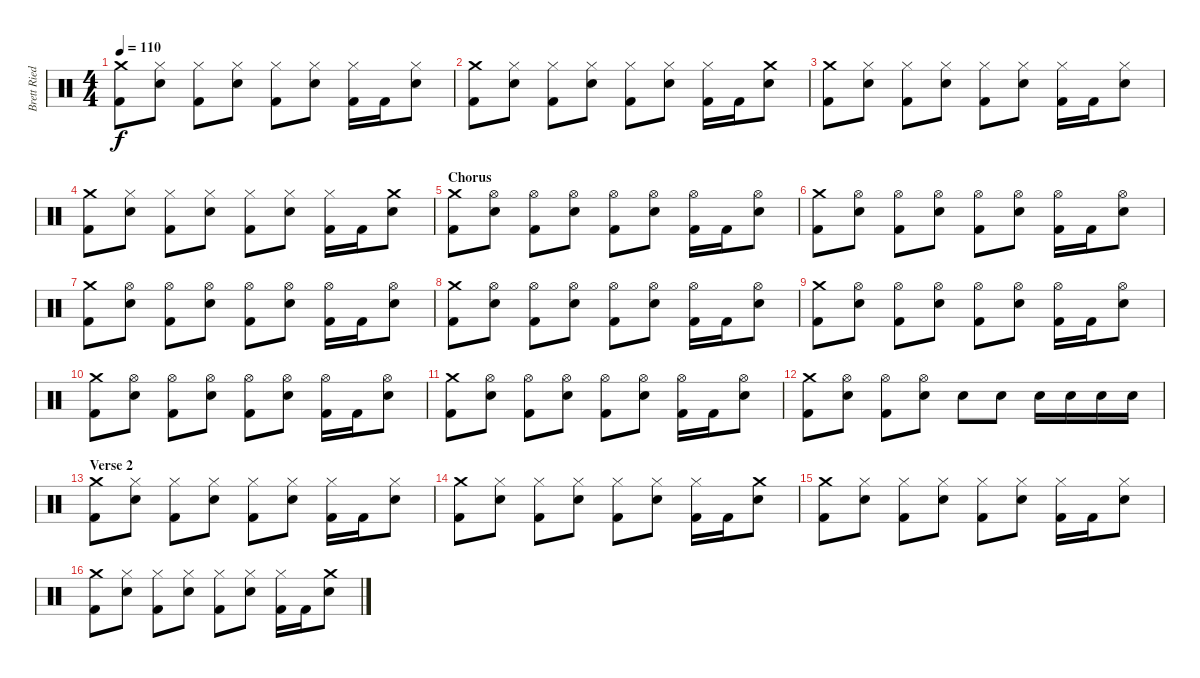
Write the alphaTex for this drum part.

\track ("Brett Ried" "Brett Ried") {instrument percussion}
\staff {score}
\articulation defaults
\ts (4 4)
\tempo 110
\clef neutral
\ks c
("Crash medium (hit)" "Kick (hit) 2").8{dy f} ("Hi-Hat (closed)" "Snare (hit) 2").8 ("Hi-Hat (closed)" "Kick (hit) 2").8 ("Hi-Hat (closed)" "Snare (hit) 2").8 ("Hi-Hat (closed)" "Kick (hit) 2").8 ("Hi-Hat (closed)" "Snare (hit) 2").8 ("Hi-Hat (closed)" "Kick (hit) 2").16 "Kick (hit) 2".16 ("Hi-Hat (closed)" "Snare (hit) 2").8 |
("Crash medium (hit)" "Kick (hit) 2").8 ("Hi-Hat (closed)" "Snare (hit) 2").8 ("Hi-Hat (closed)" "Kick (hit) 2").8 ("Hi-Hat (closed)" "Snare (hit) 2").8 ("Hi-Hat (closed)" "Kick (hit) 2").8 ("Hi-Hat (closed)" "Snare (hit) 2").8 ("Hi-Hat (closed)" "Kick (hit) 2").16 "Kick (hit) 2".16 ("Crash medium (hit)" "Snare (hit) 2").8 |
("Crash medium (hit)" "Kick (hit) 2").8 ("Hi-Hat (closed)" "Snare (hit) 2").8 ("Hi-Hat (closed)" "Kick (hit) 2").8 ("Hi-Hat (closed)" "Snare (hit) 2").8 ("Hi-Hat (closed)" "Kick (hit) 2").8 ("Hi-Hat (closed)" "Snare (hit) 2").8 ("Hi-Hat (closed)" "Kick (hit) 2").16 "Kick (hit) 2".16 ("Hi-Hat (closed)" "Snare (hit) 2").8 |
("Crash medium (hit)" "Kick (hit) 2").8 ("Hi-Hat (closed)" "Snare (hit) 2").8 ("Hi-Hat (closed)" "Kick (hit) 2").8 ("Hi-Hat (closed)" "Snare (hit) 2").8 ("Hi-Hat (closed)" "Kick (hit) 2").8 ("Hi-Hat (closed)" "Snare (hit) 2").8 ("Hi-Hat (closed)" "Kick (hit) 2").16 "Kick (hit) 2".16 ("Crash medium (hit)" "Snare (hit) 2").8 |
\section ("" "Chorus")
("Crash medium (hit)" "Kick (hit) 2").8 ("Hi-Hat (open)" "Snare (hit) 2").8 ("Hi-Hat (open)" "Kick (hit) 2").8 ("Hi-Hat (open)" "Snare (hit) 2").8 ("Hi-Hat (open)" "Kick (hit) 2").8 ("Hi-Hat (open)" "Snare (hit) 2").8 ("Hi-Hat (open)" "Kick (hit) 2").16 "Kick (hit) 2".16 ("Hi-Hat (open)" "Snare (hit) 2").8 |
("Crash medium (hit)" "Kick (hit) 2").8 ("Hi-Hat (open)" "Snare (hit) 2").8 ("Hi-Hat (open)" "Kick (hit) 2").8 ("Hi-Hat (open)" "Snare (hit) 2").8 ("Hi-Hat (open)" "Kick (hit) 2").8 ("Hi-Hat (open)" "Snare (hit) 2").8 ("Hi-Hat (open)" "Kick (hit) 2").16 "Kick (hit) 2".16 ("Hi-Hat (open)" "Snare (hit) 2").8 |
("Crash medium (hit)" "Kick (hit) 2").8 ("Hi-Hat (open)" "Snare (hit) 2").8 ("Hi-Hat (open)" "Kick (hit) 2").8 ("Hi-Hat (open)" "Snare (hit) 2").8 ("Hi-Hat (open)" "Kick (hit) 2").8 ("Hi-Hat (open)" "Snare (hit) 2").8 ("Hi-Hat (open)" "Kick (hit) 2").16 "Kick (hit) 2".16 ("Hi-Hat (open)" "Snare (hit) 2").8 |
("Crash medium (hit)" "Kick (hit) 2").8 ("Hi-Hat (open)" "Snare (hit) 2").8 ("Hi-Hat (open)" "Kick (hit) 2").8 ("Hi-Hat (open)" "Snare (hit) 2").8 ("Hi-Hat (open)" "Kick (hit) 2").8 ("Hi-Hat (open)" "Snare (hit) 2").8 ("Hi-Hat (open)" "Kick (hit) 2").16 "Kick (hit) 2".16 ("Hi-Hat (open)" "Snare (hit) 2").8 |
("Crash medium (hit)" "Kick (hit) 2").8 ("Hi-Hat (open)" "Snare (hit) 2").8 ("Hi-Hat (open)" "Kick (hit) 2").8 ("Hi-Hat (open)" "Snare (hit) 2").8 ("Hi-Hat (open)" "Kick (hit) 2").8 ("Hi-Hat (open)" "Snare (hit) 2").8 ("Hi-Hat (open)" "Kick (hit) 2").16 "Kick (hit) 2".16 ("Hi-Hat (open)" "Snare (hit) 2").8 |
("Crash medium (hit)" "Kick (hit) 2").8 ("Hi-Hat (open)" "Snare (hit) 2").8 ("Hi-Hat (open)" "Kick (hit) 2").8 ("Hi-Hat (open)" "Snare (hit) 2").8 ("Hi-Hat (open)" "Kick (hit) 2").8 ("Hi-Hat (open)" "Snare (hit) 2").8 ("Hi-Hat (open)" "Kick (hit) 2").16 "Kick (hit) 2".16 ("Hi-Hat (open)" "Snare (hit) 2").8 |
("Crash medium (hit)" "Kick (hit) 2").8 ("Hi-Hat (open)" "Snare (hit) 2").8 ("Hi-Hat (open)" "Kick (hit) 2").8 ("Hi-Hat (open)" "Snare (hit) 2").8 ("Hi-Hat (open)" "Kick (hit) 2").8 ("Hi-Hat (open)" "Snare (hit) 2").8 ("Hi-Hat (open)" "Kick (hit) 2").16 "Kick (hit) 2".16 ("Hi-Hat (open)" "Snare (hit) 2").8 |
("Crash medium (hit)" "Kick (hit) 2").8 ("Hi-Hat (open)" "Snare (hit) 2").8 ("Hi-Hat (open)" "Kick (hit) 2").8 ("Hi-Hat (open)" "Snare (hit) 2").8 "Snare (hit) 2".8 "Snare (hit) 2".8 "Snare (hit) 2".16 "Snare (hit) 2".16 "Snare (hit) 2".16 "Snare (hit) 2".16 |
\section ("" "Verse 2")
("Crash medium (hit)" "Kick (hit) 2").8 ("Hi-Hat (closed)" "Snare (hit) 2").8 ("Hi-Hat (closed)" "Kick (hit) 2").8 ("Hi-Hat (closed)" "Snare (hit) 2").8 ("Hi-Hat (closed)" "Kick (hit) 2").8 ("Hi-Hat (closed)" "Snare (hit) 2").8 ("Hi-Hat (closed)" "Kick (hit) 2").16 "Kick (hit) 2".16 ("Hi-Hat (closed)" "Snare (hit) 2").8 |
("Crash medium (hit)" "Kick (hit) 2").8 ("Hi-Hat (closed)" "Snare (hit) 2").8 ("Hi-Hat (closed)" "Kick (hit) 2").8 ("Hi-Hat (closed)" "Snare (hit) 2").8 ("Hi-Hat (closed)" "Kick (hit) 2").8 ("Hi-Hat (closed)" "Snare (hit) 2").8 ("Hi-Hat (closed)" "Kick (hit) 2").16 "Kick (hit) 2".16 ("Crash medium (hit)" "Snare (hit) 2").8 |
("Crash medium (hit)" "Kick (hit) 2").8 ("Hi-Hat (closed)" "Snare (hit) 2").8 ("Hi-Hat (closed)" "Kick (hit) 2").8 ("Hi-Hat (closed)" "Snare (hit) 2").8 ("Hi-Hat (closed)" "Kick (hit) 2").8 ("Hi-Hat (closed)" "Snare (hit) 2").8 ("Hi-Hat (closed)" "Kick (hit) 2").16 "Kick (hit) 2".16 ("Hi-Hat (closed)" "Snare (hit) 2").8 |
("Crash medium (hit)" "Kick (hit) 2").8 ("Hi-Hat (closed)" "Snare (hit) 2").8 ("Hi-Hat (closed)" "Kick (hit) 2").8 ("Hi-Hat (closed)" "Snare (hit) 2").8 ("Hi-Hat (closed)" "Kick (hit) 2").8 ("Hi-Hat (closed)" "Snare (hit) 2").8 ("Hi-Hat (closed)" "Kick (hit) 2").16 "Kick (hit) 2".16 ("Crash medium (hit)" "Snare (hit) 2").8
